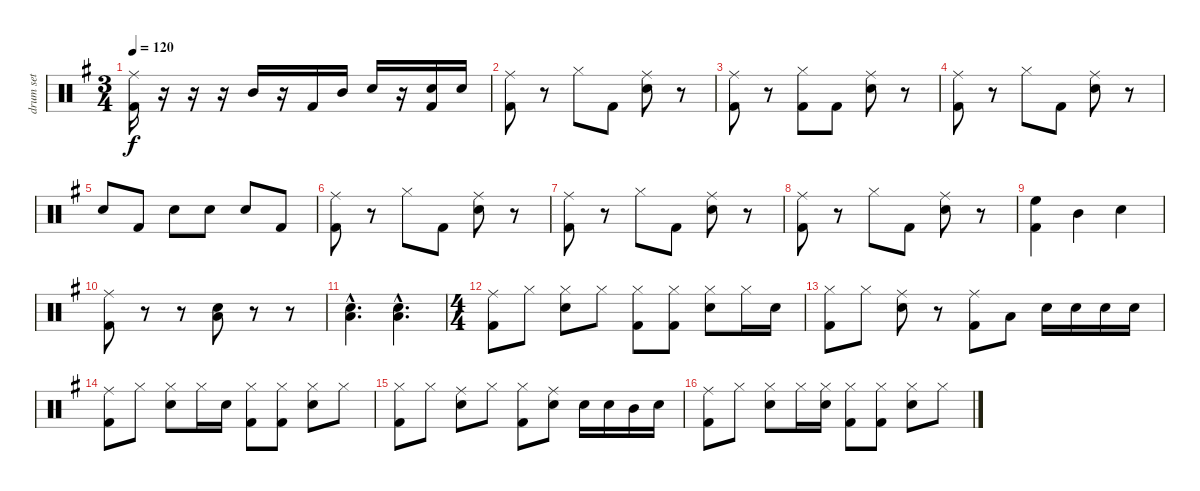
\track ("drum set" "drum set") {instrument percussion}
\staff {score}
\articulation defaults
\ts (3 4)
\tempo 120
\clef neutral
\ks g
("Ride (middle)" "Kick (hit) 2").16{dy f} r.16 r.16 r.16 "Mid Tom (hit)".16 r.16 "Kick (hit) 2".16 "Mid Tom (hit)".16 "Snare (hit) 2".16 r.16 ("Snare (hit) 2" "Kick (hit) 2").16 "Snare (hit) 2".16 |
("Ride (middle)" "Kick (hit) 2").8 r.8 "Hi-Hat (closed)".8 "Kick (hit) 2".8 ("Ride (middle)" "Snare (hit) 2").8 r.8 |
("Ride (middle)" "Kick (hit) 2").8 r.8 ("Hi-Hat (closed)" "Kick (hit) 2").8 "Kick (hit) 2".8 ("Ride (middle)" "Snare (hit) 2").8 r.8 |
("Ride (middle)" "Kick (hit) 2").8 r.8 "Hi-Hat (closed)".8 "Kick (hit) 2".8 ("Ride (middle)" "Snare (hit) 2").8 r.8 |
"Snare (hit) 2".8 "Kick (hit) 2".8 "Snare (hit) 2".8 "Snare (hit) 2".8 "Snare (hit) 2".8 "Kick (hit) 2".8 |
("Ride (middle)" "Kick (hit) 2").8 r.8 "Hi-Hat (closed)".8 "Kick (hit) 2".8 ("Ride (middle)" "Snare (hit) 2").8 r.8 |
("Ride (middle)" "Kick (hit) 2").8 r.8 "Hi-Hat (closed)".8 "Kick (hit) 2".8 ("Ride (middle)" "Snare (hit) 2").8 r.8 |
("Ride (middle)" "Kick (hit) 2").8 r.8 "Hi-Hat (closed)".8 "Kick (hit) 2".8 ("Ride (middle)" "Snare (hit) 2").8 r.8 |
("High Floor Tom (hit)" "Kick (hit) 2").4 "Mid Tom (hit)".4 "Snare (hit) 2".4 |
("Ride (middle)" "Kick (hit) 2").8 r.8 r.8 ("Snare (hit) 2" "Low Tom (hit)").8 r.8 r.8 |
("Snare (hit) 2"{hac} "Low Tom (hit)"{hac}).4{d} ("Snare (hit) 2"{hac} "Low Tom (hit)"{hac}).4{d} |
\ts (4 4)
("Ride (middle)" "Kick (hit) 2").8 "Hi-Hat (closed)".8 ("Hi-Hat (closed)" "Snare (hit) 2").8 "Hi-Hat (closed)".8 ("Hi-Hat (closed)" "Kick (hit) 2").8 ("Hi-Hat (closed)" "Kick (hit) 2").8 ("Hi-Hat (closed)" "Snare (hit) 2").8 "Hi-Hat (closed)".16 "Snare (hit) 2".16 |
("Hi-Hat (closed)" "Kick (hit) 2").8 "Hi-Hat (closed)".8 ("Ride (middle)" "Snare (hit) 2").8 r.8 ("Ride (middle)" "Kick (hit) 2").8 "Low Tom (hit)".8 "Snare (hit) 2".16 "Snare (hit) 2".16 "Snare (hit) 2".16 "Snare (hit) 2".16 |
("Ride (middle)" "Kick (hit) 2").8 "Hi-Hat (closed)".8 ("Hi-Hat (closed)" "Snare (hit) 2").8 "Hi-Hat (closed)".16 "Snare (hit) 2".16 ("Hi-Hat (closed)" "Kick (hit) 2").8 ("Hi-Hat (closed)" "Kick (hit) 2").8 ("Hi-Hat (closed)" "Snare (hit) 2").8 "Hi-Hat (closed)".8 |
("Hi-Hat (closed)" "Kick (hit) 2").8 "Hi-Hat (closed)".8 ("Ride (middle)" "Snare (hit) 2").8 "Hi-Hat (closed)".8 ("Hi-Hat (closed)" "Kick (hit) 2").8 ("Ride (middle)" "Snare (hit) 2").8 "Snare (hit) 2".16 "Snare (hit) 2".16 "Mid Tom (hit)".16 "Snare (hit) 2".16 |
("Ride (middle)" "Kick (hit) 2").8 "Hi-Hat (closed)".8 ("Hi-Hat (closed)" "Snare (hit) 2").8 "Hi-Hat (closed)".16 ("Hi-Hat (closed)" "Snare (hit) 2").16 ("Hi-Hat (closed)" "Kick (hit) 2").8 ("Hi-Hat (closed)" "Kick (hit) 2").8 ("Hi-Hat (closed)" "Snare (hit) 2").8 "Hi-Hat (closed)".8
